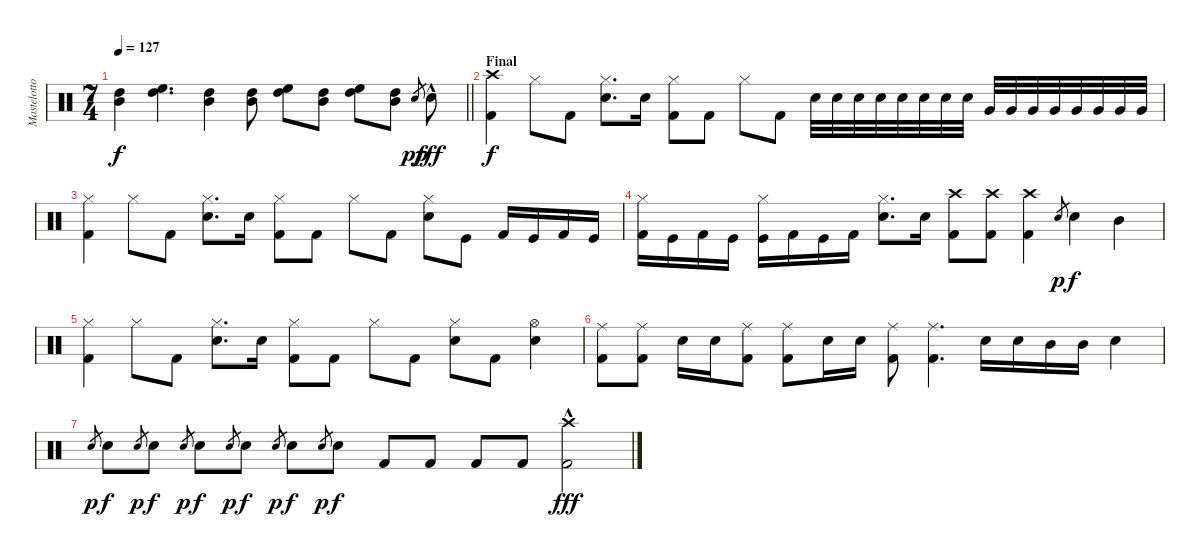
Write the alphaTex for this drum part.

\track ("Mastelotto" "Mastelotto") {instrument percussion}
\staff {score}
\articulation defaults
\ts (7 4)
\tempo 127
\clef neutral
\barLineRight lightlight
\ks c
("High Tom (hit)" "Mid Tom (hit)").4{dy f} ("High Floor Tom (hit)" "High Tom (hit)").4{d} ("High Tom (hit)" "Mid Tom (hit)").4 ("High Tom (hit)" "Mid Tom (hit)").8 ("High Floor Tom (hit)" "High Tom (hit)").8 ("High Tom (hit)" "Mid Tom (hit)").8 ("High Floor Tom (hit)" "High Tom (hit)").8 ("High Tom (hit)" "Mid Tom (hit)").8 "Electric Snare (hit)".8{gr dy pp} "Electric Snare (hit)"{hac}.8{dy fff} |
\section ("" "Final")
("Crash high (hit)" "Kick (hit) 2").4{dy f} "Hi-Hat (closed)".8 "Kick (hit) 2".8 ("Hi-Hat (closed)" "Electric Snare (hit)").8{d} "Electric Snare (hit)".16 ("Hi-Hat (closed)" "Kick (hit) 2").8 "Kick (hit) 2".8 "Hi-Hat (closed)".8 "Kick (hit) 2".8 "Electric Snare (hit)".32 "Electric Snare (hit)".32 "Electric Snare (hit)".32 "Electric Snare (hit)".32 "Electric Snare (hit)".32 "Electric Snare (hit)".32 "Electric Snare (hit)".32 "Electric Snare (hit)".32 "Very Low Tom (hit)".32 "Very Low Tom (hit)".32 "Very Low Tom (hit)".32 "Very Low Tom (hit)".32 "Very Low Tom (hit)".32 "Very Low Tom (hit)".32 "Very Low Tom (hit)".32 "Very Low Tom (hit)".32 |
("Hi-Hat (closed)" "Kick (hit) 2").4 "Hi-Hat (closed)".8 "Kick (hit) 2".8 ("Hi-Hat (closed)" "Electric Snare (hit)").8{d} "Electric Snare (hit)".16 ("Hi-Hat (closed)" "Kick (hit) 2").8 "Kick (hit) 2".8 "Hi-Hat (closed)".8 "Kick (hit) 2".8 ("Hi-Hat (closed)" "Electric Snare (hit)").8 "Kick (hit)".8 "Kick (hit) 2".16 "Kick (hit)".16 "Kick (hit) 2".16 "Kick (hit)".16 |
("Hi-Hat (closed)" "Kick (hit) 2").16 "Kick (hit)".16 "Kick (hit) 2".16 "Kick (hit)".16 ("Hi-Hat (closed)" "Kick (hit)").16 "Kick (hit) 2".16 "Kick (hit)".16 "Kick (hit) 2".16 ("Hi-Hat (closed)" "Electric Snare (hit)").8{d} "Electric Snare (hit)".16 ("Crash high (hit)" "Kick (hit) 2").8 ("Crash high (hit)" "Kick (hit) 2").8 ("Crash high (hit)" "Kick (hit) 2").4 "Electric Snare (hit)".8{gr dy p} "Electric Snare (hit)".4{dy f} "Mid Tom (hit)".4 |
("Hi-Hat (closed)" "Kick (hit) 2").4 "Hi-Hat (closed)".8 "Kick (hit) 2".8 ("Hi-Hat (closed)" "Electric Snare (hit)").8{d} "Electric Snare (hit)".16 ("Hi-Hat (closed)" "Kick (hit) 2").8 "Kick (hit) 2".8 "Hi-Hat (closed)".8 "Kick (hit) 2".8 ("Hi-Hat (closed)" "Electric Snare (hit)").8 "Kick (hit) 2".8 ("Hi-Hat (open)" "Electric Snare (hit)").4 |
("Ride (middle)" "Kick (hit) 2").8 ("Ride (middle)" "Kick (hit) 2").8 "Electric Snare (hit)".16 "Electric Snare (hit)".16 ("Ride (middle)" "Kick (hit) 2").8 ("Ride (middle)" "Kick (hit) 2").8 "Electric Snare (hit)".16 "Electric Snare (hit)".16 ("Ride (middle)" "Kick (hit) 2").8 ("Ride (middle)" "Kick (hit) 2").4{d} "Electric Snare (hit)".16 "Electric Snare (hit)".16 "Mid Tom (hit)".16 "Mid Tom (hit)".16 "Electric Snare (hit)".4 |
"Electric Snare (hit)".8{gr dy p} "Electric Snare (hit)".8{dy f} "Electric Snare (hit)".8{gr dy p} "Electric Snare (hit)".8{dy f} "Electric Snare (hit)".8{gr dy p} "Electric Snare (hit)".8{dy f} "Electric Snare (hit)".8{gr dy p} "Electric Snare (hit)".8{dy f} "Electric Snare (hit)".8{gr dy p} "Electric Snare (hit)".8{dy f} "Electric Snare (hit)".8{gr dy p} "Electric Snare (hit)".8{dy f} "Kick (hit) 2".8 "Kick (hit) 2".8 "Kick (hit) 2".8 "Kick (hit) 2".8 ("Crash high (hit)" "Kick (hit) 2"{hac}).2{dy fff}
